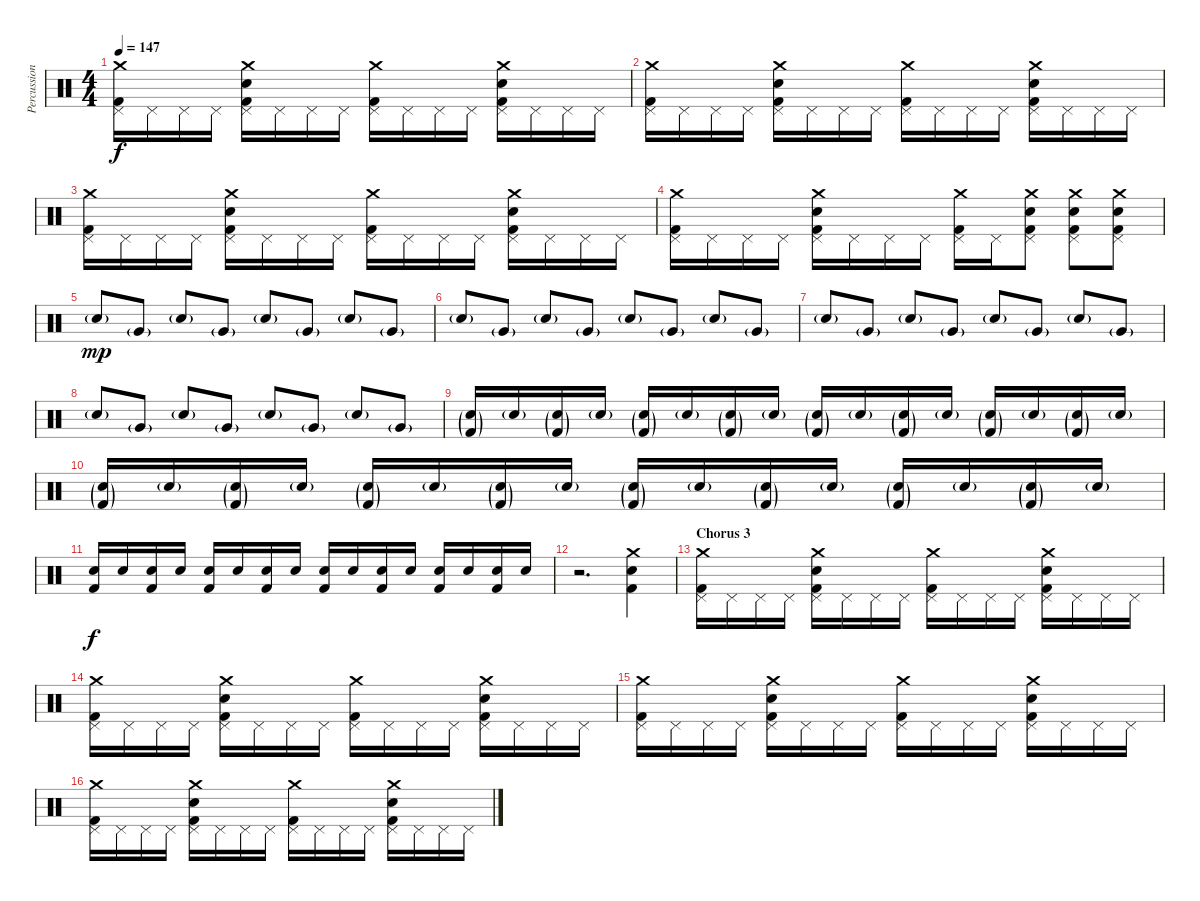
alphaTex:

\track ("Percussions" "Percussion") {instrument percussion}
\staff {score}
\articulation defaults
\ts (4 4)
\tempo 147
\clef neutral
\ks c
("Crash medium (hit)" "Pedal Hi-Hat (hit)" "Kick (hit) 2").16{dy f} "Pedal Hi-Hat (hit)".16 "Pedal Hi-Hat (hit)".16 "Pedal Hi-Hat (hit)".16 ("Crash medium (hit)" "Pedal Hi-Hat (hit)" "Electric Snare (hit)" "Kick (hit) 2").16 "Pedal Hi-Hat (hit)".16 "Pedal Hi-Hat (hit)".16 "Pedal Hi-Hat (hit)".16 ("Crash medium (hit)" "Pedal Hi-Hat (hit)" "Kick (hit) 2").16 "Pedal Hi-Hat (hit)".16 "Pedal Hi-Hat (hit)".16 "Pedal Hi-Hat (hit)".16 ("Crash medium (hit)" "Pedal Hi-Hat (hit)" "Electric Snare (hit)" "Kick (hit) 2").16 "Pedal Hi-Hat (hit)".16 "Pedal Hi-Hat (hit)".16 "Pedal Hi-Hat (hit)".16 |
("Crash medium (hit)" "Pedal Hi-Hat (hit)" "Kick (hit) 2").16 "Pedal Hi-Hat (hit)".16 "Pedal Hi-Hat (hit)".16 "Pedal Hi-Hat (hit)".16 ("Crash medium (hit)" "Pedal Hi-Hat (hit)" "Electric Snare (hit)" "Kick (hit) 2").16 "Pedal Hi-Hat (hit)".16 "Pedal Hi-Hat (hit)".16 "Pedal Hi-Hat (hit)".16 ("Crash medium (hit)" "Pedal Hi-Hat (hit)" "Kick (hit) 2").16 "Pedal Hi-Hat (hit)".16 "Pedal Hi-Hat (hit)".16 "Pedal Hi-Hat (hit)".16 ("Crash medium (hit)" "Pedal Hi-Hat (hit)" "Electric Snare (hit)" "Kick (hit) 2").16 "Pedal Hi-Hat (hit)".16 "Pedal Hi-Hat (hit)".16 "Pedal Hi-Hat (hit)".16 |
("Crash medium (hit)" "Pedal Hi-Hat (hit)" "Kick (hit) 2").16 "Pedal Hi-Hat (hit)".16 "Pedal Hi-Hat (hit)".16 "Pedal Hi-Hat (hit)".16 ("Crash medium (hit)" "Pedal Hi-Hat (hit)" "Electric Snare (hit)" "Kick (hit) 2").16 "Pedal Hi-Hat (hit)".16 "Pedal Hi-Hat (hit)".16 "Pedal Hi-Hat (hit)".16 ("Crash medium (hit)" "Pedal Hi-Hat (hit)" "Kick (hit) 2").16 "Pedal Hi-Hat (hit)".16 "Pedal Hi-Hat (hit)".16 "Pedal Hi-Hat (hit)".16 ("Crash medium (hit)" "Pedal Hi-Hat (hit)" "Electric Snare (hit)" "Kick (hit) 2").16 "Pedal Hi-Hat (hit)".16 "Pedal Hi-Hat (hit)".16 "Pedal Hi-Hat (hit)".16 |
("Crash medium (hit)" "Pedal Hi-Hat (hit)" "Kick (hit) 2").16 "Pedal Hi-Hat (hit)".16 "Pedal Hi-Hat (hit)".16 "Pedal Hi-Hat (hit)".16 ("Crash medium (hit)" "Pedal Hi-Hat (hit)" "Electric Snare (hit)" "Kick (hit) 2").16 "Pedal Hi-Hat (hit)".16 "Pedal Hi-Hat (hit)".16 "Pedal Hi-Hat (hit)".16 ("Crash medium (hit)" "Pedal Hi-Hat (hit)" "Kick (hit) 2").16 "Pedal Hi-Hat (hit)".16 ("Crash medium (hit)" "Pedal Hi-Hat (hit)" "Electric Snare (hit)" "Kick (hit) 2").8 ("Crash medium (hit)" "Pedal Hi-Hat (hit)" "Electric Snare (hit)" "Kick (hit) 2").8 ("Crash medium (hit)" "Pedal Hi-Hat (hit)" "Electric Snare (hit)" "Kick (hit) 2").8 |
"Electric Snare (hit)"{g}.8{dy mp} "Very Low Tom (hit)"{g}.8 "Electric Snare (hit)"{g}.8 "Very Low Tom (hit)"{g}.8 "Electric Snare (hit)"{g}.8 "Very Low Tom (hit)"{g}.8 "Electric Snare (hit)"{g}.8 "Very Low Tom (hit)"{g}.8 |
"Electric Snare (hit)"{g}.8 "Very Low Tom (hit)"{g}.8 "Electric Snare (hit)"{g}.8 "Very Low Tom (hit)"{g}.8 "Electric Snare (hit)"{g}.8 "Very Low Tom (hit)"{g}.8 "Electric Snare (hit)"{g}.8 "Very Low Tom (hit)"{g}.8 |
"Electric Snare (hit)"{g}.8 "Very Low Tom (hit)"{g}.8 "Electric Snare (hit)"{g}.8 "Very Low Tom (hit)"{g}.8 "Electric Snare (hit)"{g}.8 "Very Low Tom (hit)"{g}.8 "Electric Snare (hit)"{g}.8 "Very Low Tom (hit)"{g}.8 |
"Electric Snare (hit)"{g}.8 "Very Low Tom (hit)"{g}.8 "Electric Snare (hit)"{g}.8 "Very Low Tom (hit)"{g}.8 "Electric Snare (hit)"{g}.8 "Very Low Tom (hit)"{g}.8 "Electric Snare (hit)"{g}.8 "Very Low Tom (hit)"{g}.8 |
("Electric Snare (hit)"{g} "Kick (hit) 2"{g}).16 "Electric Snare (hit)"{g}.16 ("Electric Snare (hit)"{g} "Kick (hit) 2"{g}).16 "Electric Snare (hit)"{g}.16 ("Electric Snare (hit)"{g} "Kick (hit) 2"{g}).16 "Electric Snare (hit)"{g}.16 ("Electric Snare (hit)"{g} "Kick (hit) 2"{g}).16 "Electric Snare (hit)"{g}.16 ("Electric Snare (hit)"{g} "Kick (hit) 2"{g}).16 "Electric Snare (hit)"{g}.16 ("Electric Snare (hit)"{g} "Kick (hit) 2"{g}).16 "Electric Snare (hit)"{g}.16 ("Electric Snare (hit)"{g} "Kick (hit) 2"{g}).16 "Electric Snare (hit)"{g}.16 ("Electric Snare (hit)"{g} "Kick (hit) 2"{g}).16 "Electric Snare (hit)"{g}.16 |
("Electric Snare (hit)"{g} "Kick (hit) 2"{g}).16 "Electric Snare (hit)"{g}.16 ("Electric Snare (hit)"{g} "Kick (hit) 2"{g}).16 "Electric Snare (hit)"{g}.16 ("Electric Snare (hit)"{g} "Kick (hit) 2"{g}).16 "Electric Snare (hit)"{g}.16 ("Electric Snare (hit)"{g} "Kick (hit) 2"{g}).16 "Electric Snare (hit)"{g}.16 ("Electric Snare (hit)"{g} "Kick (hit) 2"{g}).16 "Electric Snare (hit)"{g}.16 ("Electric Snare (hit)"{g} "Kick (hit) 2"{g}).16 "Electric Snare (hit)"{g}.16 ("Electric Snare (hit)"{g} "Kick (hit) 2"{g}).16 "Electric Snare (hit)"{g}.16 ("Electric Snare (hit)"{g} "Kick (hit) 2"{g}).16 "Electric Snare (hit)"{g}.16 |
("Electric Snare (hit)" "Kick (hit) 2").16{dy f} "Electric Snare (hit)".16 ("Electric Snare (hit)" "Kick (hit) 2").16 "Electric Snare (hit)".16 ("Electric Snare (hit)" "Kick (hit) 2").16 "Electric Snare (hit)".16 ("Electric Snare (hit)" "Kick (hit) 2").16 "Electric Snare (hit)".16 ("Electric Snare (hit)" "Kick (hit) 2").16 "Electric Snare (hit)".16 ("Electric Snare (hit)" "Kick (hit) 2").16 "Electric Snare (hit)".16 ("Electric Snare (hit)" "Kick (hit) 2").16 "Electric Snare (hit)".16 ("Electric Snare (hit)" "Kick (hit) 2").16 "Electric Snare (hit)".16 |
r.2{d} ("Crash medium (hit)" "Electric Snare (hit)" "Kick (hit) 2").4 |
\section ("" "Chorus 3")
("Crash medium (hit)" "Pedal Hi-Hat (hit)" "Kick (hit) 2").16 "Pedal Hi-Hat (hit)".16 "Pedal Hi-Hat (hit)".16 "Pedal Hi-Hat (hit)".16 ("Crash medium (hit)" "Pedal Hi-Hat (hit)" "Electric Snare (hit)" "Kick (hit) 2").16 "Pedal Hi-Hat (hit)".16 "Pedal Hi-Hat (hit)".16 "Pedal Hi-Hat (hit)".16 ("Crash medium (hit)" "Pedal Hi-Hat (hit)" "Kick (hit) 2").16 "Pedal Hi-Hat (hit)".16 "Pedal Hi-Hat (hit)".16 "Pedal Hi-Hat (hit)".16 ("Crash medium (hit)" "Pedal Hi-Hat (hit)" "Electric Snare (hit)" "Kick (hit) 2").16 "Pedal Hi-Hat (hit)".16 "Pedal Hi-Hat (hit)".16 "Pedal Hi-Hat (hit)".16 |
("Crash medium (hit)" "Pedal Hi-Hat (hit)" "Kick (hit) 2").16 "Pedal Hi-Hat (hit)".16 "Pedal Hi-Hat (hit)".16 "Pedal Hi-Hat (hit)".16 ("Crash medium (hit)" "Pedal Hi-Hat (hit)" "Electric Snare (hit)" "Kick (hit) 2").16 "Pedal Hi-Hat (hit)".16 "Pedal Hi-Hat (hit)".16 "Pedal Hi-Hat (hit)".16 ("Crash medium (hit)" "Pedal Hi-Hat (hit)" "Kick (hit) 2").16 "Pedal Hi-Hat (hit)".16 "Pedal Hi-Hat (hit)".16 "Pedal Hi-Hat (hit)".16 ("Crash medium (hit)" "Pedal Hi-Hat (hit)" "Electric Snare (hit)" "Kick (hit) 2").16 "Pedal Hi-Hat (hit)".16 "Pedal Hi-Hat (hit)".16 "Pedal Hi-Hat (hit)".16 |
("Crash medium (hit)" "Pedal Hi-Hat (hit)" "Kick (hit) 2").16 "Pedal Hi-Hat (hit)".16 "Pedal Hi-Hat (hit)".16 "Pedal Hi-Hat (hit)".16 ("Crash medium (hit)" "Pedal Hi-Hat (hit)" "Electric Snare (hit)" "Kick (hit) 2").16 "Pedal Hi-Hat (hit)".16 "Pedal Hi-Hat (hit)".16 "Pedal Hi-Hat (hit)".16 ("Crash medium (hit)" "Pedal Hi-Hat (hit)" "Kick (hit) 2").16 "Pedal Hi-Hat (hit)".16 "Pedal Hi-Hat (hit)".16 "Pedal Hi-Hat (hit)".16 ("Crash medium (hit)" "Pedal Hi-Hat (hit)" "Electric Snare (hit)" "Kick (hit) 2").16 "Pedal Hi-Hat (hit)".16 "Pedal Hi-Hat (hit)".16 "Pedal Hi-Hat (hit)".16 |
("Crash medium (hit)" "Pedal Hi-Hat (hit)" "Kick (hit) 2").16 "Pedal Hi-Hat (hit)".16 "Pedal Hi-Hat (hit)".16 "Pedal Hi-Hat (hit)".16 ("Crash medium (hit)" "Pedal Hi-Hat (hit)" "Electric Snare (hit)" "Kick (hit) 2").16 "Pedal Hi-Hat (hit)".16 "Pedal Hi-Hat (hit)".16 "Pedal Hi-Hat (hit)".16 ("Crash medium (hit)" "Pedal Hi-Hat (hit)" "Kick (hit) 2").16 "Pedal Hi-Hat (hit)".16 "Pedal Hi-Hat (hit)".16 "Pedal Hi-Hat (hit)".16 ("Crash medium (hit)" "Pedal Hi-Hat (hit)" "Electric Snare (hit)" "Kick (hit) 2").16 "Pedal Hi-Hat (hit)".16 "Pedal Hi-Hat (hit)".16 "Pedal Hi-Hat (hit)".16
